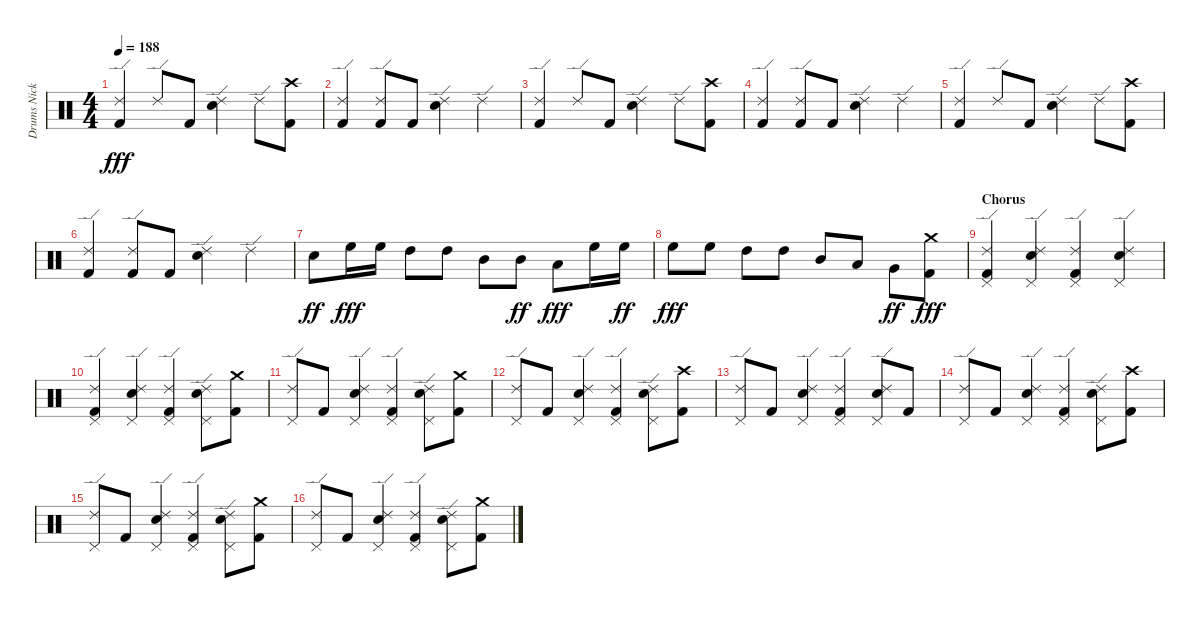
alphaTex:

\track ("Drums Nicko McBrain" "Drums Nick") {instrument percussion}
\staff {score}
\articulation defaults
\ts (4 4)
\tempo 188
\clef neutral
\ks c
("Ride (edge) 2" "Kick (hit) 2").4{dy fff} "Ride (edge) 2".8 "Kick (hit) 2".8 ("Ride (edge) 2" "Electric Snare (hit)").4 "Ride (edge) 2".8 ("Crash high (hit)" "Kick (hit) 2").8 |
("Ride (edge) 2" "Kick (hit) 2").4 ("Ride (edge) 2" "Kick (hit) 2").8 "Kick (hit) 2".8 ("Ride (edge) 2" "Electric Snare (hit)").4 "Ride (edge) 2".4 |
("Ride (edge) 2" "Kick (hit) 2").4 "Ride (edge) 2".8 "Kick (hit) 2".8 ("Ride (edge) 2" "Electric Snare (hit)").4 "Ride (edge) 2".8 ("Crash high (hit)" "Kick (hit) 2").8 |
("Ride (edge) 2" "Kick (hit) 2").4 ("Ride (edge) 2" "Kick (hit) 2").8 "Kick (hit) 2".8 ("Ride (edge) 2" "Electric Snare (hit)").4 "Ride (edge) 2".4 |
("Ride (edge) 2" "Kick (hit) 2").4 "Ride (edge) 2".8 "Kick (hit) 2".8 ("Ride (edge) 2" "Electric Snare (hit)").4 "Ride (edge) 2".8 ("Crash high (hit)" "Kick (hit) 2").8 |
("Ride (edge) 2" "Kick (hit) 2").4 ("Ride (edge) 2" "Kick (hit) 2").8 "Kick (hit) 2".8 ("Ride (edge) 2" "Electric Snare (hit)").4 "Ride (edge) 2".4 |
"Electric Snare (hit)".8{dy ff} "High Floor Tom (hit)".16{dy fff} "High Floor Tom (hit)".16 "High Tom (hit)".8 "High Tom (hit)".8 "Mid Tom (hit)".8 "Mid Tom (hit)".8{dy ff} "Low Tom (hit)".8{dy fff} "High Floor Tom (hit)".16 "High Floor Tom (hit)".16{dy ff} |
"High Floor Tom (hit)".8{dy fff} "High Floor Tom (hit)".8 "High Tom (hit)".8 "High Tom (hit)".8 "Mid Tom (hit)".8 "Low Tom (hit)".8 "Very Low Tom (hit)".8{dy ff} ("Crash medium (hit)" "Kick (hit) 2").8{dy fff} |
\section ("" "Chorus")
("Ride (edge) 2" "Pedal Hi-Hat (hit)" "Kick (hit) 2").4 ("Ride (edge) 2" "Electric Snare (hit)" "Pedal Hi-Hat (hit)").4 ("Ride (edge) 2" "Pedal Hi-Hat (hit)" "Kick (hit) 2").4 ("Ride (edge) 2" "Electric Snare (hit)" "Pedal Hi-Hat (hit)").4 |
("Ride (edge) 2" "Pedal Hi-Hat (hit)" "Kick (hit) 2").4 ("Ride (edge) 2" "Electric Snare (hit)" "Pedal Hi-Hat (hit)").4 ("Ride (edge) 2" "Pedal Hi-Hat (hit)" "Kick (hit) 2").4 ("Ride (edge) 2" "Electric Snare (hit)" "Pedal Hi-Hat (hit)").8 ("Crash medium (hit)" "Kick (hit) 2").8 |
("Ride (edge) 2" "Pedal Hi-Hat (hit)").8 "Kick (hit) 2".8 ("Ride (edge) 2" "Electric Snare (hit)" "Pedal Hi-Hat (hit)").4 ("Ride (edge) 2" "Pedal Hi-Hat (hit)" "Kick (hit) 2").4 ("Ride (edge) 2" "Electric Snare (hit)" "Pedal Hi-Hat (hit)").8 ("Crash medium (hit)" "Kick (hit) 2").8 |
("Ride (edge) 2" "Pedal Hi-Hat (hit)").8 "Kick (hit) 2".8 ("Ride (edge) 2" "Electric Snare (hit)" "Pedal Hi-Hat (hit)").4 ("Ride (edge) 2" "Pedal Hi-Hat (hit)" "Kick (hit) 2").4 ("Ride (edge) 2" "Electric Snare (hit)" "Pedal Hi-Hat (hit)").8 ("Crash high (hit)" "Kick (hit) 2").8 |
("Ride (edge) 2" "Pedal Hi-Hat (hit)").8 "Kick (hit) 2".8 ("Ride (edge) 2" "Electric Snare (hit)" "Pedal Hi-Hat (hit)").4 ("Ride (edge) 2" "Pedal Hi-Hat (hit)" "Kick (hit) 2").4 ("Ride (edge) 2" "Electric Snare (hit)" "Pedal Hi-Hat (hit)").8 "Kick (hit) 2".8 |
("Ride (edge) 2" "Pedal Hi-Hat (hit)").8 "Kick (hit) 2".8 ("Ride (edge) 2" "Electric Snare (hit)" "Pedal Hi-Hat (hit)").4 ("Ride (edge) 2" "Pedal Hi-Hat (hit)" "Kick (hit) 2").4 ("Ride (edge) 2" "Electric Snare (hit)" "Pedal Hi-Hat (hit)").8 ("Crash high (hit)" "Kick (hit) 2").8 |
("Ride (edge) 2" "Pedal Hi-Hat (hit)").8 "Kick (hit) 2".8 ("Ride (edge) 2" "Electric Snare (hit)" "Pedal Hi-Hat (hit)").4 ("Ride (edge) 2" "Pedal Hi-Hat (hit)" "Kick (hit) 2").4 ("Ride (edge) 2" "Electric Snare (hit)" "Pedal Hi-Hat (hit)").8 ("Crash medium (hit)" "Kick (hit) 2").8 |
("Ride (edge) 2" "Pedal Hi-Hat (hit)").8 "Kick (hit) 2".8 ("Ride (edge) 2" "Electric Snare (hit)" "Pedal Hi-Hat (hit)").4 ("Ride (edge) 2" "Pedal Hi-Hat (hit)" "Kick (hit) 2").4 ("Ride (edge) 2" "Electric Snare (hit)" "Pedal Hi-Hat (hit)").8 ("Crash medium (hit)" "Kick (hit) 2").8
